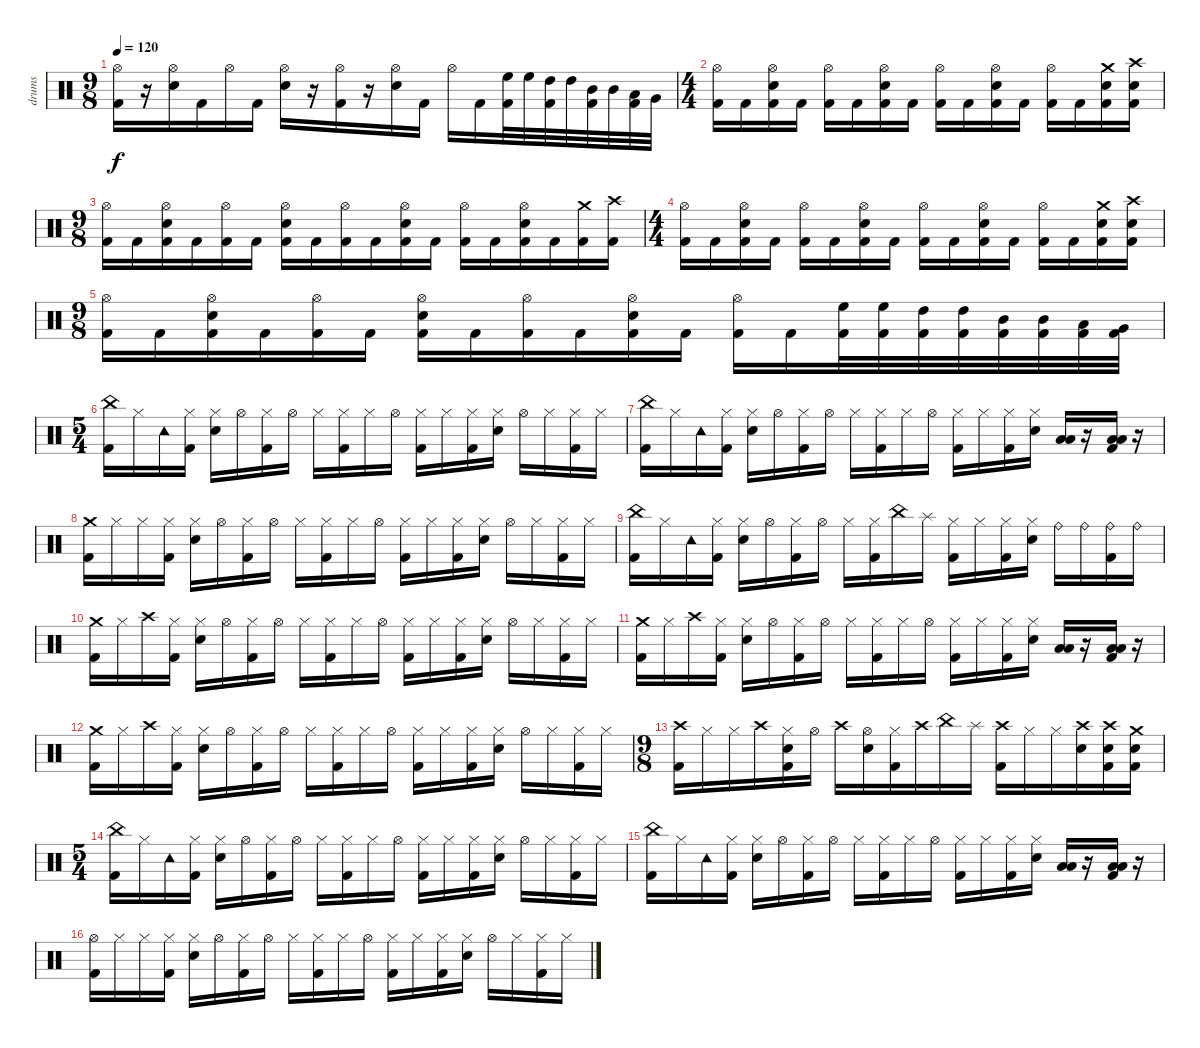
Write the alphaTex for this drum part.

\track ("drums" "drums") {instrument percussion}
\staff {score}
\articulation defaults
\ts (9 8)
\tempo 120
\clef neutral
\ks c
("Hi-Hat (open)" "Kick (hit) 2").16{dy f} r.16 ("Hi-Hat (open)" "Snare (hit) 2").16 "Kick (hit) 2".16 "Hi-Hat (open)".16 "Kick (hit) 2".16 ("Hi-Hat (open)" "Snare (hit) 2").16 r.16 ("Hi-Hat (open)" "Kick (hit) 2").16 r.16 ("Hi-Hat (open)" "Snare (hit) 2").16 "Kick (hit) 2".16 "Hi-Hat (open)".16 "Kick (hit) 2".16 ("High Floor Tom (hit)" "Kick (hit) 2").32 "High Floor Tom (hit)".32 ("High Tom (hit)" "Kick (hit) 2").32 "High Tom (hit)".32 ("Mid Tom (hit)" "Kick (hit) 2").32 "Mid Tom (hit)".32 ("Low Tom (hit)" "Kick (hit) 2").32 "Very Low Tom (hit)".32 |
\ts (4 4)
("Hi-Hat (open)" "Kick (hit) 2").16 "Kick (hit) 2".16 ("Hi-Hat (open)" "Snare (hit) 2" "Kick (hit) 2").16 "Kick (hit) 2".16 ("Hi-Hat (open)" "Kick (hit) 2").16 "Kick (hit) 2".16 ("Hi-Hat (open)" "Snare (hit) 2" "Kick (hit) 2").16 "Kick (hit) 2".16 ("Hi-Hat (open)" "Kick (hit) 2").16 "Kick (hit) 2".16 ("Hi-Hat (open)" "Snare (hit) 2" "Kick (hit) 2").16 "Kick (hit) 2".16 ("Hi-Hat (open)" "Kick (hit) 2").16 "Kick (hit) 2".16 ("Crash medium (hit)" "Snare (hit) 2" "Kick (hit) 2").16 ("Crash high (hit)" "Snare (hit) 2" "Kick (hit) 2").16 |
\ts (9 8)
("Hi-Hat (open)" "Kick (hit) 2").16 "Kick (hit) 2".16 ("Hi-Hat (open)" "Snare (hit) 2" "Kick (hit) 2").16 "Kick (hit) 2".16 ("Hi-Hat (open)" "Kick (hit) 2").16 "Kick (hit) 2".16 ("Hi-Hat (open)" "Snare (hit) 2" "Kick (hit) 2").16 "Kick (hit) 2".16 ("Hi-Hat (open)" "Kick (hit) 2").16 "Kick (hit) 2".16 ("Hi-Hat (open)" "Snare (hit) 2" "Kick (hit) 2").16 "Kick (hit) 2".16 ("Hi-Hat (open)" "Kick (hit) 2").16 "Kick (hit) 2".16 ("Hi-Hat (open)" "Snare (hit) 2" "Kick (hit) 2").16 "Kick (hit) 2".16 ("Crash medium (hit)" "Kick (hit) 2").16 ("Crash high (hit)" "Kick (hit) 2").16 |
\ts (4 4)
("Hi-Hat (open)" "Kick (hit) 2").16 "Kick (hit) 2".16 ("Hi-Hat (open)" "Snare (hit) 2" "Kick (hit) 2").16 "Kick (hit) 2".16 ("Hi-Hat (open)" "Kick (hit) 2").16 "Kick (hit) 2".16 ("Hi-Hat (open)" "Snare (hit) 2" "Kick (hit) 2").16 "Kick (hit) 2".16 ("Hi-Hat (open)" "Kick (hit) 2").16 "Kick (hit) 2".16 ("Hi-Hat (open)" "Snare (hit) 2" "Kick (hit) 2").16 "Kick (hit) 2".16 ("Hi-Hat (open)" "Kick (hit) 2").16 "Kick (hit) 2".16 ("Crash medium (hit)" "Snare (hit) 2" "Kick (hit) 2").16 ("Crash high (hit)" "Snare (hit) 2" "Kick (hit) 2").16 |
\ts (9 8)
("Hi-Hat (open)" "Kick (hit) 2").16 "Kick (hit) 2".16 ("Hi-Hat (open)" "Snare (hit) 2" "Kick (hit) 2").16 "Kick (hit) 2".16 ("Hi-Hat (open)" "Kick (hit) 2").16 "Kick (hit) 2".16 ("Hi-Hat (open)" "Snare (hit) 2" "Kick (hit) 2").16 "Kick (hit) 2".16 ("Hi-Hat (open)" "Kick (hit) 2").16 "Kick (hit) 2".16 ("Hi-Hat (open)" "Snare (hit) 2" "Kick (hit) 2").16 "Kick (hit) 2".16 ("Hi-Hat (open)" "Kick (hit) 2").16 "Kick (hit) 2".16 ("High Floor Tom (hit)" "Kick (hit) 2").32 ("High Floor Tom (hit)" "Kick (hit) 2").32 ("High Tom (hit)" "Kick (hit) 2").32 ("High Tom (hit)" "Kick (hit) 2").32 ("Mid Tom (hit)" "Kick (hit) 2").32 ("Mid Tom (hit)" "Kick (hit) 2").32 ("Low Tom (hit)" "Kick (hit) 2").32 ("Very Low Tom (hit)" "Kick (hit) 2").32 |
\ts (5 4)
("China (hit)" "Kick (hit) 2").16{volume 13} "Hi-Hat (closed)".16 "Tambourine (hit)".16 ("Hi-Hat (closed)" "Kick (hit) 2").16 ("Hi-Hat (closed)" "Snare (hit) 2").16 "Hi-Hat (open)".16 ("Hi-Hat (closed)" "Kick (hit) 2").16 "Hi-Hat (open)".16 "Hi-Hat (closed)".16 ("Hi-Hat (closed)" "Kick (hit) 2").16 "Hi-Hat (closed)".16 "Hi-Hat (open)".16 ("Hi-Hat (closed)" "Kick (hit) 2").16 "Hi-Hat (closed)".16 ("Hi-Hat (closed)" "Kick (hit) 2").16 ("Hi-Hat (closed)" "Snare (hit) 2").16 "Hi-Hat (open)".16 "Hi-Hat (closed)".16 ("Hi-Hat (closed)" "Kick (hit) 2").16 "Hi-Hat (closed)".16 |
("China (hit)" "Kick (hit) 2").16{volume 13} "Hi-Hat (closed)".16 "Tambourine (hit)".16 ("Hi-Hat (closed)" "Kick (hit) 2").16 ("Hi-Hat (closed)" "Snare (hit) 2").16 "Hi-Hat (open)".16 ("Hi-Hat (closed)" "Kick (hit) 2").16 "Hi-Hat (open)".16 "Hi-Hat (closed)".16 ("Hi-Hat (closed)" "Kick (hit) 2").16 "Hi-Hat (closed)".16 "Hi-Hat (open)".16 ("Hi-Hat (closed)" "Kick (hit) 2").16 "Hi-Hat (closed)".16 ("Hi-Hat (closed)" "Kick (hit) 2").16 ("Hi-Hat (closed)" "Snare (hit) 2").16 ("Low Tom (hit)" "Low Tom (hit)").16 r.16 ("Low Floor Tom (hit)" "Low Floor Tom (hit)" "Kick (hit) 2").16 r.16 |
("Crash medium (hit)" "Kick (hit) 2").16{volume 13} "Hi-Hat (closed)".16 "Hi-Hat (closed)".16 ("Hi-Hat (closed)" "Kick (hit) 2").16 ("Hi-Hat (closed)" "Snare (hit) 2").16 "Hi-Hat (open)".16 ("Hi-Hat (closed)" "Kick (hit) 2").16 "Hi-Hat (open)".16 "Hi-Hat (closed)".16 ("Hi-Hat (closed)" "Kick (hit) 2").16 "Hi-Hat (closed)".16 "Hi-Hat (open)".16 ("Hi-Hat (closed)" "Kick (hit) 2").16 "Hi-Hat (closed)".16 ("Hi-Hat (closed)" "Kick (hit) 2").16 ("Hi-Hat (closed)" "Snare (hit) 2").16 "Hi-Hat (open)".16 "Hi-Hat (closed)".16 ("Hi-Hat (closed)" "Kick (hit) 2").16 "Hi-Hat (closed)".16 |
("China (hit)" "Kick (hit) 2").16{volume 13} "Hi-Hat (closed)".16 "Tambourine (hit)".16 ("Hi-Hat (closed)" "Kick (hit) 2").16 ("Hi-Hat (closed)" "Snare (hit) 2").16 "Hi-Hat (open)".16 ("Hi-Hat (closed)" "Kick (hit) 2").16 "Hi-Hat (open)".16 "Hi-Hat (closed)".16 ("Hi-Hat (closed)" "Kick (hit) 2").16 "China (hit)".16 "Splash (hit)".16 ("Hi-Hat (closed)" "Kick (hit) 2").16 "Hi-Hat (closed)".16 ("Hi-Hat (closed)" "Kick (hit) 2").16 ("Hi-Hat (closed)" "Snare (hit) 2").16 "Ride (bell)".16 "Ride (bell)".16 ("Ride (bell)" "Kick (hit) 2").16 "Ride (bell)".16 |
("Crash medium (hit)" "Kick (hit) 2").16{volume 13} "Hi-Hat (closed)".16 "Crash high (hit)".16 ("Hi-Hat (closed)" "Kick (hit) 2").16 ("Hi-Hat (closed)" "Snare (hit) 2").16 "Hi-Hat (open)".16 ("Hi-Hat (closed)" "Kick (hit) 2").16 "Hi-Hat (open)".16 "Hi-Hat (closed)".16 ("Hi-Hat (closed)" "Kick (hit) 2").16 "Hi-Hat (closed)".16 "Hi-Hat (open)".16 ("Hi-Hat (closed)" "Kick (hit) 2").16 "Hi-Hat (closed)".16 ("Hi-Hat (closed)" "Kick (hit) 2").16 ("Hi-Hat (closed)" "Snare (hit) 2").16 "Hi-Hat (open)".16 "Hi-Hat (closed)".16 ("Hi-Hat (closed)" "Kick (hit) 2").16 "Hi-Hat (closed)".16 |
("Crash medium (hit)" "Kick (hit) 2").16{volume 13} "Hi-Hat (closed)".16 "Crash high (hit)".16 ("Hi-Hat (closed)" "Kick (hit) 2").16 ("Hi-Hat (closed)" "Snare (hit) 2").16 "Hi-Hat (open)".16 ("Hi-Hat (closed)" "Kick (hit) 2").16 "Hi-Hat (open)".16 "Hi-Hat (closed)".16 ("Hi-Hat (closed)" "Kick (hit) 2").16 "Hi-Hat (closed)".16 "Hi-Hat (open)".16 ("Hi-Hat (closed)" "Kick (hit) 2").16 "Hi-Hat (closed)".16 ("Hi-Hat (closed)" "Kick (hit) 2").16 ("Hi-Hat (closed)" "Snare (hit) 2").16 ("Low Tom (hit)" "Low Tom (hit)").16 r.16 ("Low Floor Tom (hit)" "Low Floor Tom (hit)" "Kick (hit) 2").16 r.16 |
("Crash medium (hit)" "Kick (hit) 2").16{volume 13} "Hi-Hat (closed)".16 "Crash high (hit)".16 ("Hi-Hat (closed)" "Kick (hit) 2").16 ("Hi-Hat (closed)" "Snare (hit) 2").16 "Hi-Hat (open)".16 ("Hi-Hat (closed)" "Kick (hit) 2").16 "Hi-Hat (open)".16 "Hi-Hat (closed)".16 ("Hi-Hat (closed)" "Kick (hit) 2").16 "Hi-Hat (closed)".16 "Hi-Hat (open)".16 ("Hi-Hat (closed)" "Kick (hit) 2").16 "Hi-Hat (closed)".16 ("Hi-Hat (closed)" "Kick (hit) 2").16 ("Hi-Hat (closed)" "Snare (hit) 2").16 "Hi-Hat (open)".16 "Hi-Hat (closed)".16 ("Hi-Hat (closed)" "Kick (hit) 2").16 "Hi-Hat (closed)".16 |
\ts (9 8)
("Crash high (hit)" "Kick (hit) 2").16{volume 13} "Hi-Hat (closed)".16 "Hi-Hat (closed)".16 "Crash high (hit)".16 ("Hi-Hat (closed)" "Snare (hit) 2" "Kick (hit) 2").16 "Hi-Hat (open)".16 "Crash high (hit)".16 ("Hi-Hat (open)" "Snare (hit) 2").16 ("Hi-Hat (closed)" "Kick (hit) 2").16 "Crash high (hit)".16 "China (hit)".16 "Splash (hit)".16 ("Crash high (hit)" "Kick (hit) 2").16 "Hi-Hat (closed)".16 "Hi-Hat (closed)".16 ("Crash high (hit)" "Snare (hit) 2").16 ("Crash high (hit)" "Snare (hit) 2" "Kick (hit) 2").16 ("Crash medium (hit)" "Snare (hit) 2" "Kick (hit) 2").16 |
\ts (5 4)
("China (hit)" "Kick (hit) 2").16{volume 13} "Hi-Hat (closed)".16 "Tambourine (hit)".16 ("Hi-Hat (closed)" "Kick (hit) 2").16 ("Hi-Hat (closed)" "Snare (hit) 2").16 "Hi-Hat (open)".16 ("Hi-Hat (closed)" "Kick (hit) 2").16 "Hi-Hat (open)".16 "Hi-Hat (closed)".16 ("Hi-Hat (closed)" "Kick (hit) 2").16 "Hi-Hat (closed)".16 "Hi-Hat (open)".16 ("Hi-Hat (closed)" "Kick (hit) 2").16 "Hi-Hat (closed)".16 ("Hi-Hat (closed)" "Kick (hit) 2").16 ("Hi-Hat (closed)" "Snare (hit) 2").16 "Hi-Hat (open)".16 "Hi-Hat (closed)".16 ("Hi-Hat (closed)" "Kick (hit) 2").16 "Hi-Hat (closed)".16 |
("China (hit)" "Kick (hit) 2").16{volume 13} "Hi-Hat (closed)".16 "Tambourine (hit)".16 ("Hi-Hat (closed)" "Kick (hit) 2").16 ("Hi-Hat (closed)" "Snare (hit) 2").16 "Hi-Hat (open)".16 ("Hi-Hat (closed)" "Kick (hit) 2").16 "Hi-Hat (open)".16 "Hi-Hat (closed)".16 ("Hi-Hat (closed)" "Kick (hit) 2").16 "Hi-Hat (closed)".16 "Hi-Hat (open)".16 ("Hi-Hat (closed)" "Kick (hit) 2").16 "Hi-Hat (closed)".16 ("Hi-Hat (closed)" "Kick (hit) 2").16 ("Hi-Hat (closed)" "Snare (hit) 2").16 ("Low Tom (hit)" "Low Tom (hit)").16 r.16 ("Low Floor Tom (hit)" "Low Floor Tom (hit)" "Kick (hit) 2").16 r.16 |
("Hi-Hat (open)" "Kick (hit) 2").16{volume 13} "Hi-Hat (closed)".16 "Hi-Hat (closed)".16 ("Hi-Hat (closed)" "Kick (hit) 2").16 ("Hi-Hat (closed)" "Snare (hit) 2").16 "Hi-Hat (open)".16 ("Hi-Hat (closed)" "Kick (hit) 2").16 "Hi-Hat (open)".16 "Hi-Hat (closed)".16 ("Hi-Hat (closed)" "Kick (hit) 2").16 "Hi-Hat (closed)".16 "Hi-Hat (open)".16 ("Hi-Hat (closed)" "Kick (hit) 2").16 "Hi-Hat (closed)".16 ("Hi-Hat (closed)" "Kick (hit) 2").16 ("Hi-Hat (closed)" "Snare (hit) 2").16 "Hi-Hat (open)".16 "Hi-Hat (closed)".16 ("Hi-Hat (closed)" "Kick (hit) 2").16 "Hi-Hat (closed)".16
